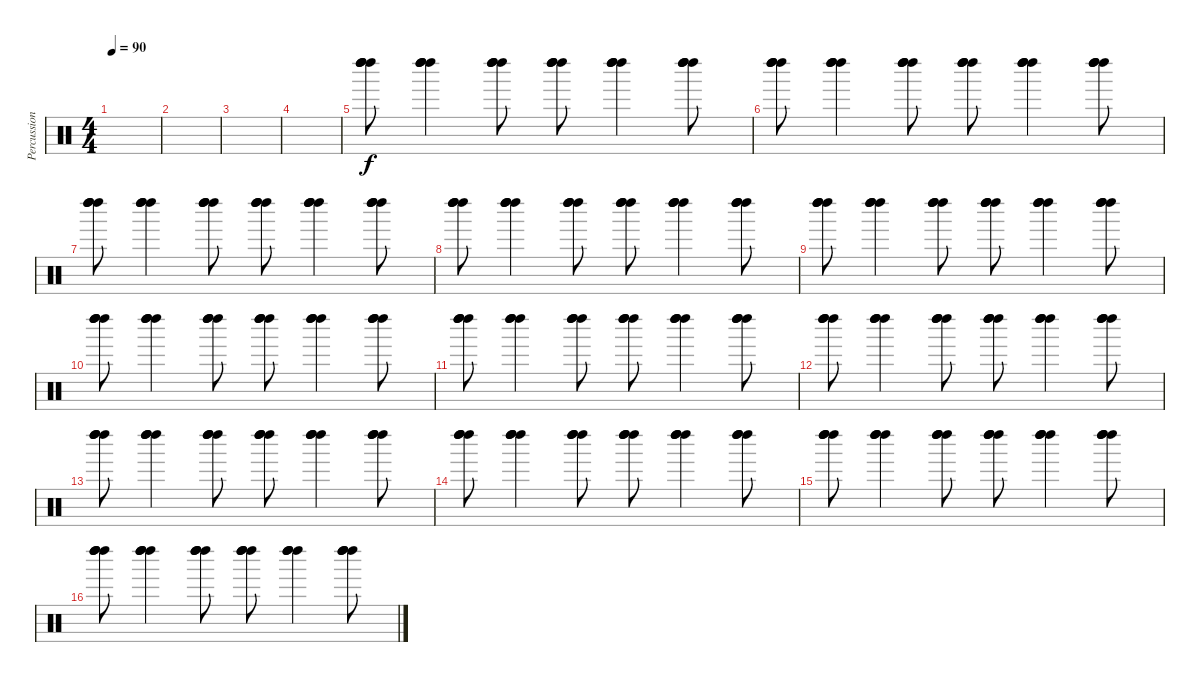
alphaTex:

\track ("Percussions" "Percussion") {instrument percussion}
\staff {score}
\articulation defaults
\ts (4 4)
\tempo 90
\clef neutral
\ks c
|
|
|
|
("Left Maraca (hit)" "Left Maraca (hit)" "Left Maraca (hit)" "Left Maraca (hit)").8 ("Left Maraca (hit)" "Left Maraca (hit)" "Left Maraca (hit)" "Left Maraca (hit)").4 ("Left Maraca (hit)" "Left Maraca (hit)" "Left Maraca (hit)" "Left Maraca (hit)").8 ("Left Maraca (hit)" "Left Maraca (hit)" "Left Maraca (hit)" "Left Maraca (hit)").8 ("Left Maraca (hit)" "Left Maraca (hit)" "Left Maraca (hit)" "Left Maraca (hit)").4 ("Left Maraca (hit)" "Left Maraca (hit)" "Left Maraca (hit)" "Left Maraca (hit)").8 |
("Left Maraca (hit)" "Left Maraca (hit)" "Left Maraca (hit)" "Left Maraca (hit)").8 ("Left Maraca (hit)" "Left Maraca (hit)" "Left Maraca (hit)" "Left Maraca (hit)").4 ("Left Maraca (hit)" "Left Maraca (hit)" "Left Maraca (hit)" "Left Maraca (hit)").8 ("Left Maraca (hit)" "Left Maraca (hit)" "Left Maraca (hit)" "Left Maraca (hit)").8 ("Left Maraca (hit)" "Left Maraca (hit)" "Left Maraca (hit)" "Left Maraca (hit)").4 ("Left Maraca (hit)" "Left Maraca (hit)" "Left Maraca (hit)" "Left Maraca (hit)").8 |
("Left Maraca (hit)" "Left Maraca (hit)" "Left Maraca (hit)" "Left Maraca (hit)").8 ("Left Maraca (hit)" "Left Maraca (hit)" "Left Maraca (hit)" "Left Maraca (hit)").4 ("Left Maraca (hit)" "Left Maraca (hit)" "Left Maraca (hit)" "Left Maraca (hit)").8 ("Left Maraca (hit)" "Left Maraca (hit)" "Left Maraca (hit)" "Left Maraca (hit)").8 ("Left Maraca (hit)" "Left Maraca (hit)" "Left Maraca (hit)" "Left Maraca (hit)").4 ("Left Maraca (hit)" "Left Maraca (hit)" "Left Maraca (hit)" "Left Maraca (hit)").8 |
("Left Maraca (hit)" "Left Maraca (hit)" "Left Maraca (hit)" "Left Maraca (hit)").8 ("Left Maraca (hit)" "Left Maraca (hit)" "Left Maraca (hit)" "Left Maraca (hit)").4 ("Left Maraca (hit)" "Left Maraca (hit)" "Left Maraca (hit)" "Left Maraca (hit)").8 ("Left Maraca (hit)" "Left Maraca (hit)" "Left Maraca (hit)" "Left Maraca (hit)").8 ("Left Maraca (hit)" "Left Maraca (hit)" "Left Maraca (hit)" "Left Maraca (hit)").4 ("Left Maraca (hit)" "Left Maraca (hit)" "Left Maraca (hit)" "Left Maraca (hit)").8 |
("Left Maraca (hit)" "Left Maraca (hit)" "Left Maraca (hit)" "Left Maraca (hit)").8 ("Left Maraca (hit)" "Left Maraca (hit)" "Left Maraca (hit)" "Left Maraca (hit)").4 ("Left Maraca (hit)" "Left Maraca (hit)" "Left Maraca (hit)" "Left Maraca (hit)").8 ("Left Maraca (hit)" "Left Maraca (hit)" "Left Maraca (hit)" "Left Maraca (hit)").8 ("Left Maraca (hit)" "Left Maraca (hit)" "Left Maraca (hit)" "Left Maraca (hit)").4 ("Left Maraca (hit)" "Left Maraca (hit)" "Left Maraca (hit)" "Left Maraca (hit)").8 |
("Left Maraca (hit)" "Left Maraca (hit)" "Left Maraca (hit)" "Left Maraca (hit)").8 ("Left Maraca (hit)" "Left Maraca (hit)" "Left Maraca (hit)" "Left Maraca (hit)").4 ("Left Maraca (hit)" "Left Maraca (hit)" "Left Maraca (hit)" "Left Maraca (hit)").8 ("Left Maraca (hit)" "Left Maraca (hit)" "Left Maraca (hit)" "Left Maraca (hit)").8 ("Left Maraca (hit)" "Left Maraca (hit)" "Left Maraca (hit)" "Left Maraca (hit)").4 ("Left Maraca (hit)" "Left Maraca (hit)" "Left Maraca (hit)" "Left Maraca (hit)").8 |
("Left Maraca (hit)" "Left Maraca (hit)" "Left Maraca (hit)" "Left Maraca (hit)").8 ("Left Maraca (hit)" "Left Maraca (hit)" "Left Maraca (hit)" "Left Maraca (hit)").4 ("Left Maraca (hit)" "Left Maraca (hit)" "Left Maraca (hit)" "Left Maraca (hit)").8 ("Left Maraca (hit)" "Left Maraca (hit)" "Left Maraca (hit)" "Left Maraca (hit)").8 ("Left Maraca (hit)" "Left Maraca (hit)" "Left Maraca (hit)" "Left Maraca (hit)").4 ("Left Maraca (hit)" "Left Maraca (hit)" "Left Maraca (hit)" "Left Maraca (hit)").8 |
("Left Maraca (hit)" "Left Maraca (hit)" "Left Maraca (hit)" "Left Maraca (hit)").8 ("Left Maraca (hit)" "Left Maraca (hit)" "Left Maraca (hit)" "Left Maraca (hit)").4 ("Left Maraca (hit)" "Left Maraca (hit)" "Left Maraca (hit)" "Left Maraca (hit)").8 ("Left Maraca (hit)" "Left Maraca (hit)" "Left Maraca (hit)" "Left Maraca (hit)").8 ("Left Maraca (hit)" "Left Maraca (hit)" "Left Maraca (hit)" "Left Maraca (hit)").4 ("Left Maraca (hit)" "Left Maraca (hit)" "Left Maraca (hit)" "Left Maraca (hit)").8 |
("Left Maraca (hit)" "Left Maraca (hit)" "Left Maraca (hit)" "Left Maraca (hit)").8 ("Left Maraca (hit)" "Left Maraca (hit)" "Left Maraca (hit)" "Left Maraca (hit)").4 ("Left Maraca (hit)" "Left Maraca (hit)" "Left Maraca (hit)" "Left Maraca (hit)").8 ("Left Maraca (hit)" "Left Maraca (hit)" "Left Maraca (hit)" "Left Maraca (hit)").8 ("Left Maraca (hit)" "Left Maraca (hit)" "Left Maraca (hit)" "Left Maraca (hit)").4 ("Left Maraca (hit)" "Left Maraca (hit)" "Left Maraca (hit)" "Left Maraca (hit)").8 |
("Left Maraca (hit)" "Left Maraca (hit)" "Left Maraca (hit)" "Left Maraca (hit)").8 ("Left Maraca (hit)" "Left Maraca (hit)" "Left Maraca (hit)" "Left Maraca (hit)").4 ("Left Maraca (hit)" "Left Maraca (hit)" "Left Maraca (hit)" "Left Maraca (hit)").8 ("Left Maraca (hit)" "Left Maraca (hit)" "Left Maraca (hit)" "Left Maraca (hit)").8 ("Left Maraca (hit)" "Left Maraca (hit)" "Left Maraca (hit)" "Left Maraca (hit)").4 ("Left Maraca (hit)" "Left Maraca (hit)" "Left Maraca (hit)" "Left Maraca (hit)").8 |
("Left Maraca (hit)" "Left Maraca (hit)" "Left Maraca (hit)" "Left Maraca (hit)").8 ("Left Maraca (hit)" "Left Maraca (hit)" "Left Maraca (hit)" "Left Maraca (hit)").4 ("Left Maraca (hit)" "Left Maraca (hit)" "Left Maraca (hit)" "Left Maraca (hit)").8 ("Left Maraca (hit)" "Left Maraca (hit)" "Left Maraca (hit)" "Left Maraca (hit)").8 ("Left Maraca (hit)" "Left Maraca (hit)" "Left Maraca (hit)" "Left Maraca (hit)").4 ("Left Maraca (hit)" "Left Maraca (hit)" "Left Maraca (hit)" "Left Maraca (hit)").8 |
("Left Maraca (hit)" "Left Maraca (hit)" "Left Maraca (hit)" "Left Maraca (hit)").8 ("Left Maraca (hit)" "Left Maraca (hit)" "Left Maraca (hit)" "Left Maraca (hit)").4 ("Left Maraca (hit)" "Left Maraca (hit)" "Left Maraca (hit)" "Left Maraca (hit)").8 ("Left Maraca (hit)" "Left Maraca (hit)" "Left Maraca (hit)" "Left Maraca (hit)").8 ("Left Maraca (hit)" "Left Maraca (hit)" "Left Maraca (hit)" "Left Maraca (hit)").4 ("Left Maraca (hit)" "Left Maraca (hit)" "Left Maraca (hit)" "Left Maraca (hit)").8
